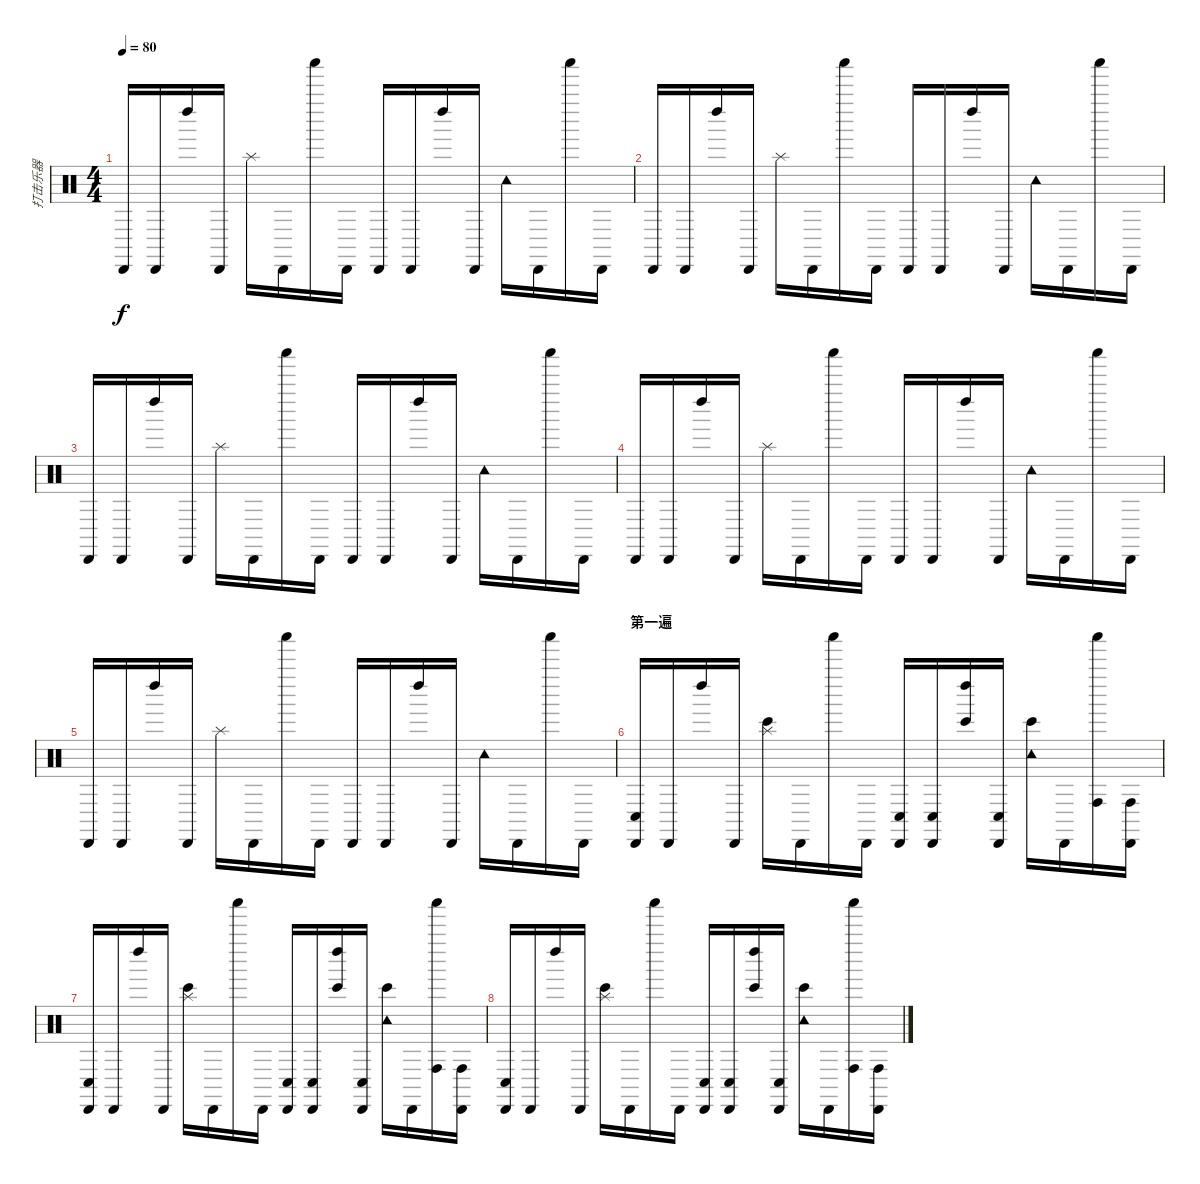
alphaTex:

\track ("打击乐器" "打击乐器") {instrument percussion}
\staff {score}
\articulation defaults
\ts (4 4)
\tempo 80
\clef neutral
\ks c "Cabasa (hit)".16{dy f} "Cabasa (hit)".16 "Left Maraca (hit)".16 "Cabasa (hit)".16 "Splash (hit)".16 "Cabasa (hit)".16 "Shaker (hit)".16 "Cabasa (hit)".16 "Cabasa (hit)".16 "Cabasa (hit)".16 "Left Maraca (hit)".16 "Cabasa (hit)".16 "Tambourine (hit)".16 "Cabasa (hit)".16 "Shaker (hit)".16 "Cabasa (hit)".16
|
"Cabasa (hit)".16 "Cabasa (hit)".16 "Left Maraca (hit)".16 "Cabasa (hit)".16 "Splash (hit)".16 "Cabasa (hit)".16 "Shaker (hit)".16 "Cabasa (hit)".16 "Cabasa (hit)".16 "Cabasa (hit)".16 "Left Maraca (hit)".16 "Cabasa (hit)".16 "Tambourine (hit)".16 "Cabasa (hit)".16 "Shaker (hit)".16 "Cabasa (hit)".16 |
"Cabasa (hit)".16 "Cabasa (hit)".16 "Left Maraca (hit)".16 "Cabasa (hit)".16 "Splash (hit)".16 "Cabasa (hit)".16 "Shaker (hit)".16 "Cabasa (hit)".16 "Cabasa (hit)".16 "Cabasa (hit)".16 "Left Maraca (hit)".16 "Cabasa (hit)".16 "Tambourine (hit)".16 "Cabasa (hit)".16 "Shaker (hit)".16 "Cabasa (hit)".16 |
"Cabasa (hit)".16 "Cabasa (hit)".16 "Left Maraca (hit)".16 "Cabasa (hit)".16 "Splash (hit)".16 "Cabasa (hit)".16 "Shaker (hit)".16 "Cabasa (hit)".16 "Cabasa (hit)".16 "Cabasa (hit)".16 "Left Maraca (hit)".16 "Cabasa (hit)".16 "Tambourine (hit)".16 "Cabasa (hit)".16 "Shaker (hit)".16 "Cabasa (hit)".16 |
"Cabasa (hit)".16 "Cabasa (hit)".16 "Left Maraca (hit)".16 "Cabasa (hit)".16 "Splash (hit)".16 "Cabasa (hit)".16 "Shaker (hit)".16 "Cabasa (hit)".16 "Cabasa (hit)".16 "Cabasa (hit)".16 "Left Maraca (hit)".16 "Cabasa (hit)".16 "Tambourine (hit)".16 "Cabasa (hit)".16 "Shaker (hit)".16 "Cabasa (hit)".16 |
\section ("" "第一遍")
("Cabasa (hit)" "Conga low (hit)").16 "Cabasa (hit)".16 "Left Maraca (hit)".16 "Cabasa (hit)".16 ("Splash (hit)" "Bongo High (hit)").16 "Cabasa (hit)".16 "Shaker (hit)".16 "Cabasa (hit)".16 ("Cabasa (hit)" "Conga low (hit)").16 ("Cabasa (hit)" "Conga low (hit)").16 ("Left Maraca (hit)" "Bongo High (hit)").16 ("Cabasa (hit)" "Conga low (hit)").16 ("Tambourine (hit)" "Bongo High (hit)").16 "Cabasa (hit)".16 ("Shaker (hit)" "Conga high (hit)").16 ("Cabasa (hit)" "Conga high (hit)").16 |
("Cabasa (hit)" "Conga low (hit)").16 "Cabasa (hit)".16 "Left Maraca (hit)".16 "Cabasa (hit)".16 ("Splash (hit)" "Bongo High (hit)").16 "Cabasa (hit)".16 "Shaker (hit)".16 "Cabasa (hit)".16 ("Cabasa (hit)" "Conga low (hit)").16 ("Cabasa (hit)" "Conga low (hit)").16 ("Left Maraca (hit)" "Bongo High (hit)").16 ("Cabasa (hit)" "Conga low (hit)").16 ("Tambourine (hit)" "Bongo High (hit)").16 "Cabasa (hit)".16 ("Shaker (hit)" "Conga high (hit)").16 ("Cabasa (hit)" "Conga high (hit)").16 |
("Cabasa (hit)" "Conga low (hit)").16 "Cabasa (hit)".16 "Left Maraca (hit)".16 "Cabasa (hit)".16 ("Splash (hit)" "Bongo High (hit)").16 "Cabasa (hit)".16 "Shaker (hit)".16 "Cabasa (hit)".16 ("Cabasa (hit)" "Conga low (hit)").16 ("Cabasa (hit)" "Conga low (hit)").16 ("Left Maraca (hit)" "Bongo High (hit)").16 ("Cabasa (hit)" "Conga low (hit)").16 ("Tambourine (hit)" "Bongo High (hit)").16 "Cabasa (hit)".16 ("Shaker (hit)" "Conga high (hit)").16 ("Cabasa (hit)" "Conga high (hit)").16
